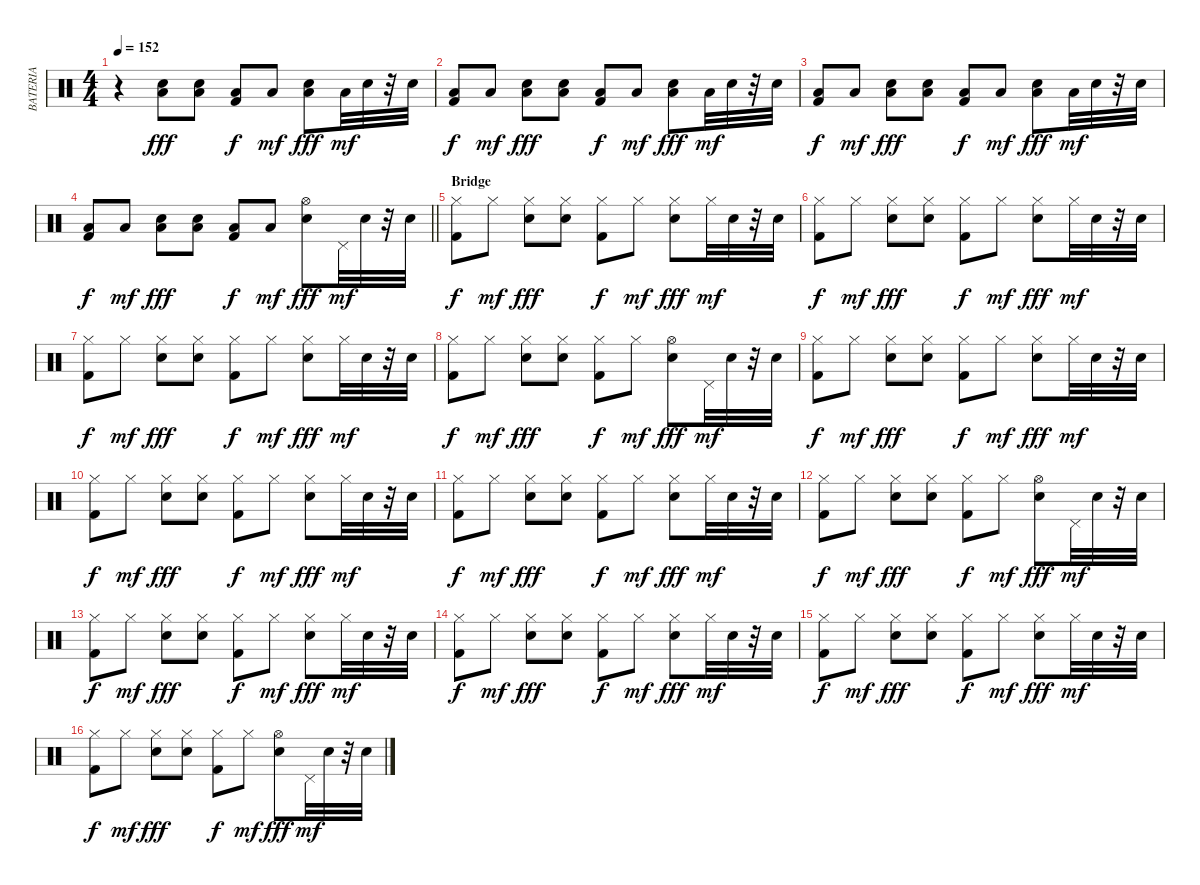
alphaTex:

\track ("BATERIA" "BATERIA") {instrument percussion}
\staff {score}
\articulation defaults
\ts (4 4)
\tempo 152
\clef neutral
\ks c
r.4{dy ff} ("Low Tom (hit)" "Snare (hit) 2").8{dy fff} ("Low Tom (hit)" "Snare (hit) 2").8 ("Low Tom (hit)" "Kick (hit) 2").8{dy f} "Low Tom (hit)".8{dy mf} ("Low Tom (hit)" "Snare (hit) 2").8{dy fff} "Low Tom (hit)".32{dy mf} "Snare (hit) 2".32 r.32 "Snare (hit) 2".32 |
("Low Tom (hit)" "Kick (hit) 2").8{dy f} "Low Tom (hit)".8{dy mf} ("Low Tom (hit)" "Snare (hit) 2").8{dy fff} ("Low Tom (hit)" "Snare (hit) 2").8 ("Low Tom (hit)" "Kick (hit) 2").8{dy f} "Low Tom (hit)".8{dy mf} ("Low Tom (hit)" "Snare (hit) 2").8{dy fff} "Low Tom (hit)".32{dy mf} "Snare (hit) 2".32 r.32 "Snare (hit) 2".32 |
("Low Tom (hit)" "Kick (hit) 2").8{dy f} "Low Tom (hit)".8{dy mf} ("Low Tom (hit)" "Snare (hit) 2").8{dy fff} ("Low Tom (hit)" "Snare (hit) 2").8 ("Low Tom (hit)" "Kick (hit) 2").8{dy f} "Low Tom (hit)".8{dy mf} ("Low Tom (hit)" "Snare (hit) 2").8{dy fff} "Low Tom (hit)".32{dy mf} "Snare (hit) 2".32 r.32 "Snare (hit) 2".32 |
\barLineRight lightlight
("Low Tom (hit)" "Kick (hit) 2").8{dy f} "Low Tom (hit)".8{dy mf} ("Low Tom (hit)" "Snare (hit) 2").8{dy fff} ("Low Tom (hit)" "Snare (hit) 2").8 ("Low Tom (hit)" "Kick (hit) 2").8{dy f} "Low Tom (hit)".8{dy mf} ("Hi-Hat (open)" "Snare (hit) 2").8{dy fff} "Pedal Hi-Hat (hit)".32{dy mf} "Snare (hit) 2".32 r.32 "Snare (hit) 2".32 |
\section ("" "Bridge")
("Kick (hit) 2" "Hi-Hat (closed)").8{dy f} "Hi-Hat (closed)".8{dy mf} ("Hi-Hat (closed)" "Snare (hit) 2").8{dy fff} ("Hi-Hat (closed)" "Snare (hit) 2").8 ("Kick (hit) 2" "Hi-Hat (closed)").8{dy f} "Hi-Hat (closed)".8{dy mf} ("Hi-Hat (closed)" "Snare (hit) 2").8{dy fff} "Hi-Hat (closed)".32{dy mf} "Snare (hit) 2".32 r.32 "Snare (hit) 2".32 |
("Hi-Hat (closed)" "Kick (hit) 2").8{dy f} "Hi-Hat (closed)".8{dy mf} ("Hi-Hat (closed)" "Snare (hit) 2").8{dy fff} ("Hi-Hat (closed)" "Snare (hit) 2").8 ("Hi-Hat (closed)" "Kick (hit) 2").8{dy f} "Hi-Hat (closed)".8{dy mf} ("Hi-Hat (closed)" "Snare (hit) 2").8{dy fff} "Hi-Hat (closed)".32{dy mf} "Snare (hit) 2".32 r.32 "Snare (hit) 2".32 |
("Hi-Hat (closed)" "Kick (hit) 2").8{dy f} "Hi-Hat (closed)".8{dy mf} ("Hi-Hat (closed)" "Snare (hit) 2").8{dy fff} ("Hi-Hat (closed)" "Snare (hit) 2").8 ("Hi-Hat (closed)" "Kick (hit) 2").8{dy f} "Hi-Hat (closed)".8{dy mf} ("Hi-Hat (closed)" "Snare (hit) 2").8{dy fff} "Hi-Hat (closed)".32{dy mf} "Snare (hit) 2".32 r.32 "Snare (hit) 2".32 |
("Hi-Hat (closed)" "Kick (hit) 2").8{dy f} "Hi-Hat (closed)".8{dy mf} ("Hi-Hat (closed)" "Snare (hit) 2").8{dy fff} ("Hi-Hat (closed)" "Snare (hit) 2").8 ("Hi-Hat (closed)" "Kick (hit) 2").8{dy f} "Hi-Hat (closed)".8{dy mf} ("Hi-Hat (open)" "Snare (hit) 2").8{dy fff} "Pedal Hi-Hat (hit)".32{dy mf} "Snare (hit) 2".32 r.32 "Snare (hit) 2".32 |
("Kick (hit) 2" "Hi-Hat (closed)").8{dy f} "Hi-Hat (closed)".8{dy mf} ("Hi-Hat (closed)" "Snare (hit) 2").8{dy fff} ("Hi-Hat (closed)" "Snare (hit) 2").8 ("Kick (hit) 2" "Hi-Hat (closed)").8{dy f} "Hi-Hat (closed)".8{dy mf} ("Hi-Hat (closed)" "Snare (hit) 2").8{dy fff} "Hi-Hat (closed)".32{dy mf} "Snare (hit) 2".32 r.32 "Snare (hit) 2".32 |
("Hi-Hat (closed)" "Kick (hit) 2").8{dy f} "Hi-Hat (closed)".8{dy mf} ("Hi-Hat (closed)" "Snare (hit) 2").8{dy fff} ("Hi-Hat (closed)" "Snare (hit) 2").8 ("Hi-Hat (closed)" "Kick (hit) 2").8{dy f} "Hi-Hat (closed)".8{dy mf} ("Hi-Hat (closed)" "Snare (hit) 2").8{dy fff} "Hi-Hat (closed)".32{dy mf} "Snare (hit) 2".32 r.32 "Snare (hit) 2".32 |
("Hi-Hat (closed)" "Kick (hit) 2").8{dy f} "Hi-Hat (closed)".8{dy mf} ("Hi-Hat (closed)" "Snare (hit) 2").8{dy fff} ("Hi-Hat (closed)" "Snare (hit) 2").8 ("Hi-Hat (closed)" "Kick (hit) 2").8{dy f} "Hi-Hat (closed)".8{dy mf} ("Hi-Hat (closed)" "Snare (hit) 2").8{dy fff} "Hi-Hat (closed)".32{dy mf} "Snare (hit) 2".32 r.32 "Snare (hit) 2".32 |
("Hi-Hat (closed)" "Kick (hit) 2").8{dy f} "Hi-Hat (closed)".8{dy mf} ("Hi-Hat (closed)" "Snare (hit) 2").8{dy fff} ("Hi-Hat (closed)" "Snare (hit) 2").8 ("Hi-Hat (closed)" "Kick (hit) 2").8{dy f} "Hi-Hat (closed)".8{dy mf} ("Hi-Hat (open)" "Snare (hit) 2").8{dy fff} "Pedal Hi-Hat (hit)".32{dy mf} "Snare (hit) 2".32 r.32 "Snare (hit) 2".32 |
("Kick (hit) 2" "Hi-Hat (closed)").8{dy f} "Hi-Hat (closed)".8{dy mf} ("Hi-Hat (closed)" "Snare (hit) 2").8{dy fff} ("Hi-Hat (closed)" "Snare (hit) 2").8 ("Kick (hit) 2" "Hi-Hat (closed)").8{dy f} "Hi-Hat (closed)".8{dy mf} ("Hi-Hat (closed)" "Snare (hit) 2").8{dy fff} "Hi-Hat (closed)".32{dy mf} "Snare (hit) 2".32 r.32 "Snare (hit) 2".32 |
("Hi-Hat (closed)" "Kick (hit) 2").8{dy f} "Hi-Hat (closed)".8{dy mf} ("Hi-Hat (closed)" "Snare (hit) 2").8{dy fff} ("Hi-Hat (closed)" "Snare (hit) 2").8 ("Hi-Hat (closed)" "Kick (hit) 2").8{dy f} "Hi-Hat (closed)".8{dy mf} ("Hi-Hat (closed)" "Snare (hit) 2").8{dy fff} "Hi-Hat (closed)".32{dy mf} "Snare (hit) 2".32 r.32 "Snare (hit) 2".32 |
("Hi-Hat (closed)" "Kick (hit) 2").8{dy f} "Hi-Hat (closed)".8{dy mf} ("Hi-Hat (closed)" "Snare (hit) 2").8{dy fff} ("Hi-Hat (closed)" "Snare (hit) 2").8 ("Hi-Hat (closed)" "Kick (hit) 2").8{dy f} "Hi-Hat (closed)".8{dy mf} ("Hi-Hat (closed)" "Snare (hit) 2").8{dy fff} "Hi-Hat (closed)".32{dy mf} "Snare (hit) 2".32 r.32 "Snare (hit) 2".32 |
("Hi-Hat (closed)" "Kick (hit) 2").8{dy f} "Hi-Hat (closed)".8{dy mf} ("Hi-Hat (closed)" "Snare (hit) 2").8{dy fff} ("Hi-Hat (closed)" "Snare (hit) 2").8 ("Hi-Hat (closed)" "Kick (hit) 2").8{dy f} "Hi-Hat (closed)".8{dy mf} ("Hi-Hat (open)" "Snare (hit) 2").8{dy fff} "Pedal Hi-Hat (hit)".32{dy mf} "Snare (hit) 2".32 r.32 "Snare (hit) 2".32
